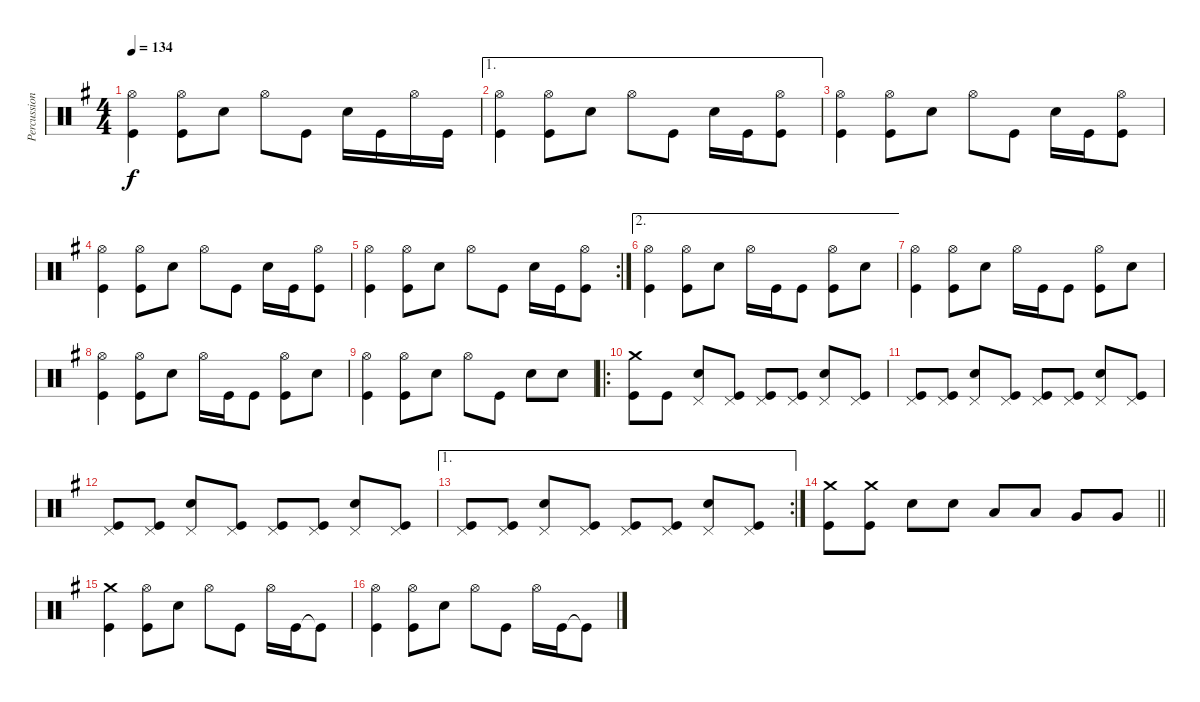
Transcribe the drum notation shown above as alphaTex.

\track ("Percussion" "Percussion") {instrument percussion}
\staff {score}
\articulation defaults
\ts (4 4)
\tempo 134
\clef neutral
\ks g
("Hi-Hat (open)" "Kick (hit)").4{dy f} ("Hi-Hat (open)" "Kick (hit)").8 "Snare (hit) 2".8 "Hi-Hat (open)".8 "Kick (hit)".8 "Snare (hit) 2".16 "Kick (hit)".16 "Hi-Hat (open)".16 "Kick (hit)".16 |
\ae 1
("Hi-Hat (open)" "Kick (hit)").4 ("Hi-Hat (open)" "Kick (hit)").8 "Snare (hit) 2".8 "Hi-Hat (open)".8 "Kick (hit)".8 "Snare (hit) 2".16 "Kick (hit)".16 ("Hi-Hat (open)" "Kick (hit)").8 |
("Hi-Hat (open)" "Kick (hit)").4 ("Hi-Hat (open)" "Kick (hit)").8 "Snare (hit) 2".8 "Hi-Hat (open)".8 "Kick (hit)".8 "Snare (hit) 2".16 "Kick (hit)".16 ("Hi-Hat (open)" "Kick (hit)").8 |
("Hi-Hat (open)" "Kick (hit)").4 ("Hi-Hat (open)" "Kick (hit)").8 "Snare (hit) 2".8 "Hi-Hat (open)".8 "Kick (hit)".8 "Snare (hit) 2".16 "Kick (hit)".16 ("Hi-Hat (open)" "Kick (hit)").8 |
\rc 2
("Hi-Hat (open)" "Kick (hit)").4 ("Hi-Hat (open)" "Kick (hit)").8 "Snare (hit) 2".8 "Hi-Hat (open)".8 "Kick (hit)".8 "Snare (hit) 2".16 "Kick (hit)".16 ("Hi-Hat (open)" "Kick (hit)").8 |
\ae 2
("Hi-Hat (open)" "Kick (hit)").4 ("Hi-Hat (open)" "Kick (hit)").8 "Snare (hit) 2".8 "Hi-Hat (open)".16 "Kick (hit)".16 "Kick (hit)".8 ("Hi-Hat (open)" "Kick (hit)").8 "Snare (hit) 2".8 |
("Hi-Hat (open)" "Kick (hit)").4 ("Hi-Hat (open)" "Kick (hit)").8 "Snare (hit) 2".8 "Hi-Hat (open)".16 "Kick (hit)".16 "Kick (hit)".8 ("Hi-Hat (open)" "Kick (hit)").8 "Snare (hit) 2".8 |
("Hi-Hat (open)" "Kick (hit)").4 ("Hi-Hat (open)" "Kick (hit)").8 "Snare (hit) 2".8 "Hi-Hat (open)".16 "Kick (hit)".16 "Kick (hit)".8 ("Hi-Hat (open)" "Kick (hit)").8 "Snare (hit) 2".8 |
("Hi-Hat (open)" "Kick (hit)").4 ("Hi-Hat (open)" "Kick (hit)").8 "Snare (hit) 2".8 "Hi-Hat (open)".8 "Kick (hit)".8 "Snare (hit) 2".8 "Snare (hit) 2".8 |
\ro
("Crash medium (hit)" "Kick (hit)").8 "Kick (hit)".8 ("Pedal Hi-Hat (hit)" "Snare (hit) 2").8 ("Pedal Hi-Hat (hit)" "Kick (hit)").8 ("Pedal Hi-Hat (hit)" "Kick (hit)").8 ("Pedal Hi-Hat (hit)" "Kick (hit)").8 ("Pedal Hi-Hat (hit)" "Snare (hit) 2").8 ("Pedal Hi-Hat (hit)" "Kick (hit)").8 |
("Pedal Hi-Hat (hit)" "Kick (hit)").8 ("Pedal Hi-Hat (hit)" "Kick (hit)").8 ("Pedal Hi-Hat (hit)" "Snare (hit) 2").8 ("Pedal Hi-Hat (hit)" "Kick (hit)").8 ("Pedal Hi-Hat (hit)" "Kick (hit)").8 ("Pedal Hi-Hat (hit)" "Kick (hit)").8 ("Pedal Hi-Hat (hit)" "Snare (hit) 2").8 ("Pedal Hi-Hat (hit)" "Kick (hit)").8 |
("Pedal Hi-Hat (hit)" "Kick (hit)").8 ("Pedal Hi-Hat (hit)" "Kick (hit)").8 ("Pedal Hi-Hat (hit)" "Snare (hit) 2").8 ("Pedal Hi-Hat (hit)" "Kick (hit)").8 ("Pedal Hi-Hat (hit)" "Kick (hit)").8 ("Pedal Hi-Hat (hit)" "Kick (hit)").8 ("Pedal Hi-Hat (hit)" "Snare (hit) 2").8 ("Pedal Hi-Hat (hit)" "Kick (hit)").8 |
\ae 1
\rc 2
("Pedal Hi-Hat (hit)" "Kick (hit)").8 ("Pedal Hi-Hat (hit)" "Kick (hit)").8 ("Pedal Hi-Hat (hit)" "Snare (hit) 2").8 ("Pedal Hi-Hat (hit)" "Kick (hit)").8 ("Pedal Hi-Hat (hit)" "Kick (hit)").8 ("Pedal Hi-Hat (hit)" "Kick (hit)").8 ("Pedal Hi-Hat (hit)" "Snare (hit) 2").8 ("Pedal Hi-Hat (hit)" "Kick (hit)").8 |
\barLineRight lightlight
("Crash medium (hit)" "Kick (hit)").8 ("Crash medium (hit)" "Kick (hit)").8 "Snare (hit) 2".8 "Snare (hit) 2".8 "Low Tom (hit)".8 "Low Tom (hit)".8 "Very Low Tom (hit)".8 "Very Low Tom (hit)".8 |
("Crash medium (hit)" "Kick (hit)").4 ("Hi-Hat (open)" "Kick (hit)").8 "Snare (hit) 2".8 "Hi-Hat (open)".8 "Kick (hit)".8 "Hi-Hat (open)".16 "Kick (hit)".16 "Kick (hit)"{t}.8 |
("Hi-Hat (open)" "Kick (hit)").4 ("Hi-Hat (open)" "Kick (hit)").8 "Snare (hit) 2".8 "Hi-Hat (open)".8 "Kick (hit)".8 "Hi-Hat (open)".16 "Kick (hit)".16 "Kick (hit)"{t}.8
